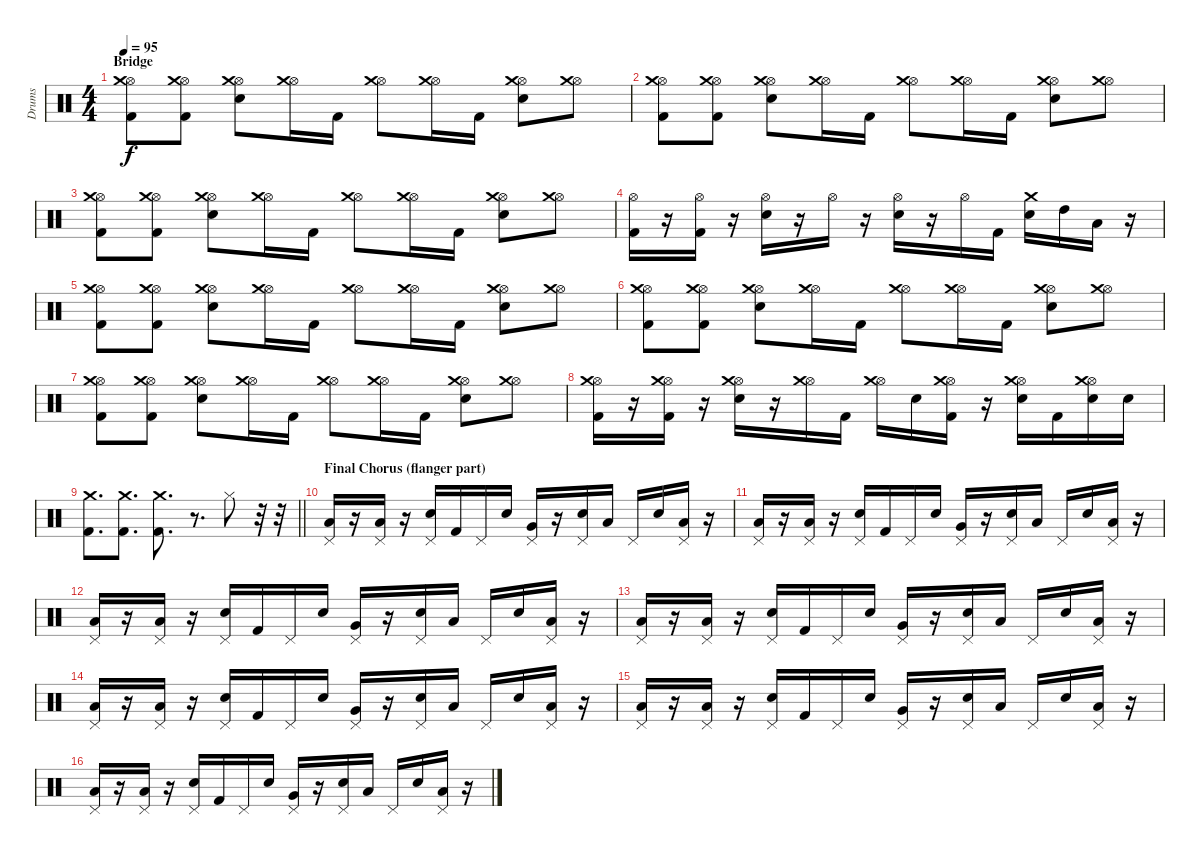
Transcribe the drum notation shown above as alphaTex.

\track ("Drums" "Drums") {instrument percussion}
\staff {score}
\articulation defaults
\ts (4 4)
\section ("" "Bridge")
\tempo 95
\clef neutral
\ks c
("Hi-Hat (open)" "Crash medium (hit)" "Kick (hit) 2").8{dy f} ("Hi-Hat (open)" "Crash medium (hit)" "Kick (hit) 2").8 ("Hi-Hat (open)" "Crash medium (hit)" "Snare (hit) 2").8 ("Hi-Hat (open)" "Crash medium (hit)").16 "Kick (hit) 2".16 ("Hi-Hat (open)" "Crash medium (hit)").8 ("Hi-Hat (open)" "Crash medium (hit)").16 "Kick (hit) 2".16 ("Hi-Hat (open)" "Crash medium (hit)" "Snare (hit) 2").8 ("Hi-Hat (open)" "Crash medium (hit)").8 |
("Hi-Hat (open)" "Crash medium (hit)" "Kick (hit) 2").8 ("Hi-Hat (open)" "Crash medium (hit)" "Kick (hit) 2").8 ("Hi-Hat (open)" "Crash medium (hit)" "Snare (hit) 2").8 ("Hi-Hat (open)" "Crash medium (hit)").16 "Kick (hit) 2".16 ("Hi-Hat (open)" "Crash medium (hit)").8 ("Hi-Hat (open)" "Crash medium (hit)").16 "Kick (hit) 2".16 ("Hi-Hat (open)" "Crash medium (hit)" "Snare (hit) 2").8 ("Hi-Hat (open)" "Crash medium (hit)").8 |
("Hi-Hat (open)" "Crash medium (hit)" "Kick (hit) 2").8 ("Hi-Hat (open)" "Crash medium (hit)" "Kick (hit) 2").8 ("Hi-Hat (open)" "Crash medium (hit)" "Snare (hit) 2").8 ("Hi-Hat (open)" "Crash medium (hit)").16 "Kick (hit) 2".16 ("Hi-Hat (open)" "Crash medium (hit)").8 ("Hi-Hat (open)" "Crash medium (hit)").16 "Kick (hit) 2".16 ("Hi-Hat (open)" "Crash medium (hit)" "Snare (hit) 2").8 ("Hi-Hat (open)" "Crash medium (hit)").8 |
("Hi-Hat (open)" "Kick (hit) 2").16 r.16 ("Hi-Hat (open)" "Kick (hit) 2").16 r.16 ("Hi-Hat (open)" "Snare (hit) 2").16 r.16 "Hi-Hat (open)".16 r.16 ("Hi-Hat (open)" "Snare (hit) 2").16 r.16 "Hi-Hat (open)".16 "Kick (hit) 2".16 ("Crash medium (hit)" "Snare (hit) 2").16 "High Tom (hit)".16 "Low Tom (hit)".16 r.16 |
("Hi-Hat (open)" "Crash medium (hit)" "Kick (hit) 2").8 ("Hi-Hat (open)" "Crash medium (hit)" "Kick (hit) 2").8 ("Hi-Hat (open)" "Crash medium (hit)" "Snare (hit) 2").8 ("Hi-Hat (open)" "Crash medium (hit)").16 "Kick (hit) 2".16 ("Hi-Hat (open)" "Crash medium (hit)").8 ("Hi-Hat (open)" "Crash medium (hit)").16 "Kick (hit) 2".16 ("Hi-Hat (open)" "Crash medium (hit)" "Snare (hit) 2").8 ("Hi-Hat (open)" "Crash medium (hit)").8 |
("Hi-Hat (open)" "Crash medium (hit)" "Kick (hit) 2").8 ("Hi-Hat (open)" "Crash medium (hit)" "Kick (hit) 2").8 ("Hi-Hat (open)" "Crash medium (hit)" "Snare (hit) 2").8 ("Hi-Hat (open)" "Crash medium (hit)").16 "Kick (hit) 2".16 ("Hi-Hat (open)" "Crash medium (hit)").8 ("Hi-Hat (open)" "Crash medium (hit)").16 "Kick (hit) 2".16 ("Hi-Hat (open)" "Crash medium (hit)" "Snare (hit) 2").8 ("Hi-Hat (open)" "Crash medium (hit)").8 |
("Hi-Hat (open)" "Crash medium (hit)" "Kick (hit) 2").8 ("Hi-Hat (open)" "Crash medium (hit)" "Kick (hit) 2").8 ("Hi-Hat (open)" "Crash medium (hit)" "Snare (hit) 2").8 ("Hi-Hat (open)" "Crash medium (hit)").16 "Kick (hit) 2".16 ("Hi-Hat (open)" "Crash medium (hit)").8 ("Hi-Hat (open)" "Crash medium (hit)").16 "Kick (hit) 2".16 ("Hi-Hat (open)" "Crash medium (hit)" "Snare (hit) 2").8 ("Hi-Hat (open)" "Crash medium (hit)").8 |
("Hi-Hat (open)" "Crash medium (hit)" "Kick (hit) 2").16 r.16 ("Hi-Hat (open)" "Crash medium (hit)" "Kick (hit) 2").16 r.16 ("Hi-Hat (open)" "Crash medium (hit)" "Snare (hit) 2").16 r.16 ("Hi-Hat (open)" "Crash medium (hit)").16 "Kick (hit) 2".16 ("Hi-Hat (open)" "Crash medium (hit)").16 "Snare (hit) 2".16 ("Hi-Hat (open)" "Crash medium (hit)" "Kick (hit) 2").16 r.16 ("Hi-Hat (open)" "Crash medium (hit)" "Snare (hit) 2").16 "Kick (hit) 2".16 ("Hi-Hat (open)" "Crash medium (hit)" "Snare (hit) 2").16 "Snare (hit) 2".16 |
\barLineRight lightlight
("Crash medium (hit)" "Kick (hit) 2").8{d} ("Crash medium (hit)" "Kick (hit) 2").8{d} ("Crash medium (hit)" "Kick (hit) 2").8{d} r.8{d} "Hi-Hat (closed)".8 r.32 r.32 |
\section ("" "Final Chorus (flanger part)")
("Pedal Hi-Hat (hit)" "Low Floor Tom (hit)").16 r.16 ("Pedal Hi-Hat (hit)" "Low Floor Tom (hit)").16 r.16 ("Pedal Hi-Hat (hit)" "Snare (hit) 2").16 "Kick (hit) 2".16 "Pedal Hi-Hat (hit)".16 "Snare (hit) 2".16 ("Pedal Hi-Hat (hit)" "Very Low Tom (hit)").16 r.16 ("Pedal Hi-Hat (hit)" "Snare (hit) 2").16 "Low Tom (hit)".16 "Pedal Hi-Hat (hit)".16 "Snare (hit) 2".16 ("Pedal Hi-Hat (hit)" "Low Floor Tom (hit)").16 r.16 |
("Pedal Hi-Hat (hit)" "Low Floor Tom (hit)").16 r.16 ("Pedal Hi-Hat (hit)" "Low Floor Tom (hit)").16 r.16 ("Pedal Hi-Hat (hit)" "Snare (hit) 2").16 "Kick (hit) 2".16 "Pedal Hi-Hat (hit)".16 "Snare (hit) 2".16 ("Pedal Hi-Hat (hit)" "Very Low Tom (hit)").16 r.16 ("Pedal Hi-Hat (hit)" "Snare (hit) 2").16 "Low Tom (hit)".16 "Pedal Hi-Hat (hit)".16 "Snare (hit) 2".16 ("Pedal Hi-Hat (hit)" "Low Floor Tom (hit)").16 r.16 |
("Pedal Hi-Hat (hit)" "Low Floor Tom (hit)").16 r.16 ("Pedal Hi-Hat (hit)" "Low Floor Tom (hit)").16 r.16 ("Pedal Hi-Hat (hit)" "Snare (hit) 2").16 "Kick (hit) 2".16 "Pedal Hi-Hat (hit)".16 "Snare (hit) 2".16 ("Pedal Hi-Hat (hit)" "Very Low Tom (hit)").16 r.16 ("Pedal Hi-Hat (hit)" "Snare (hit) 2").16 "Low Tom (hit)".16 "Pedal Hi-Hat (hit)".16 "Snare (hit) 2".16 ("Pedal Hi-Hat (hit)" "Low Floor Tom (hit)").16 r.16 |
("Pedal Hi-Hat (hit)" "Low Floor Tom (hit)").16 r.16 ("Pedal Hi-Hat (hit)" "Low Floor Tom (hit)").16 r.16 ("Pedal Hi-Hat (hit)" "Snare (hit) 2").16 "Kick (hit) 2".16 "Pedal Hi-Hat (hit)".16 "Snare (hit) 2".16 ("Pedal Hi-Hat (hit)" "Very Low Tom (hit)").16 r.16 ("Pedal Hi-Hat (hit)" "Snare (hit) 2").16 "Low Tom (hit)".16 "Pedal Hi-Hat (hit)".16 "Snare (hit) 2".16 ("Pedal Hi-Hat (hit)" "Low Floor Tom (hit)").16 r.16 |
("Pedal Hi-Hat (hit)" "Low Floor Tom (hit)").16 r.16 ("Pedal Hi-Hat (hit)" "Low Floor Tom (hit)").16 r.16 ("Pedal Hi-Hat (hit)" "Snare (hit) 2").16 "Kick (hit) 2".16 "Pedal Hi-Hat (hit)".16 "Snare (hit) 2".16 ("Pedal Hi-Hat (hit)" "Very Low Tom (hit)").16 r.16 ("Pedal Hi-Hat (hit)" "Snare (hit) 2").16 "Low Tom (hit)".16 "Pedal Hi-Hat (hit)".16 "Snare (hit) 2".16 ("Pedal Hi-Hat (hit)" "Low Floor Tom (hit)").16 r.16 |
("Pedal Hi-Hat (hit)" "Low Floor Tom (hit)").16 r.16 ("Pedal Hi-Hat (hit)" "Low Floor Tom (hit)").16 r.16 ("Pedal Hi-Hat (hit)" "Snare (hit) 2").16 "Kick (hit) 2".16 "Pedal Hi-Hat (hit)".16 "Snare (hit) 2".16 ("Pedal Hi-Hat (hit)" "Very Low Tom (hit)").16 r.16 ("Pedal Hi-Hat (hit)" "Snare (hit) 2").16 "Low Tom (hit)".16 "Pedal Hi-Hat (hit)".16 "Snare (hit) 2".16 ("Pedal Hi-Hat (hit)" "Low Floor Tom (hit)").16 r.16 |
("Pedal Hi-Hat (hit)" "Low Floor Tom (hit)").16 r.16 ("Pedal Hi-Hat (hit)" "Low Floor Tom (hit)").16 r.16 ("Pedal Hi-Hat (hit)" "Snare (hit) 2").16 "Kick (hit) 2".16 "Pedal Hi-Hat (hit)".16 "Snare (hit) 2".16 ("Pedal Hi-Hat (hit)" "Very Low Tom (hit)").16 r.16 ("Pedal Hi-Hat (hit)" "Snare (hit) 2").16 "Low Tom (hit)".16 "Pedal Hi-Hat (hit)".16 "Snare (hit) 2".16 ("Pedal Hi-Hat (hit)" "Low Floor Tom (hit)").16 r.16
